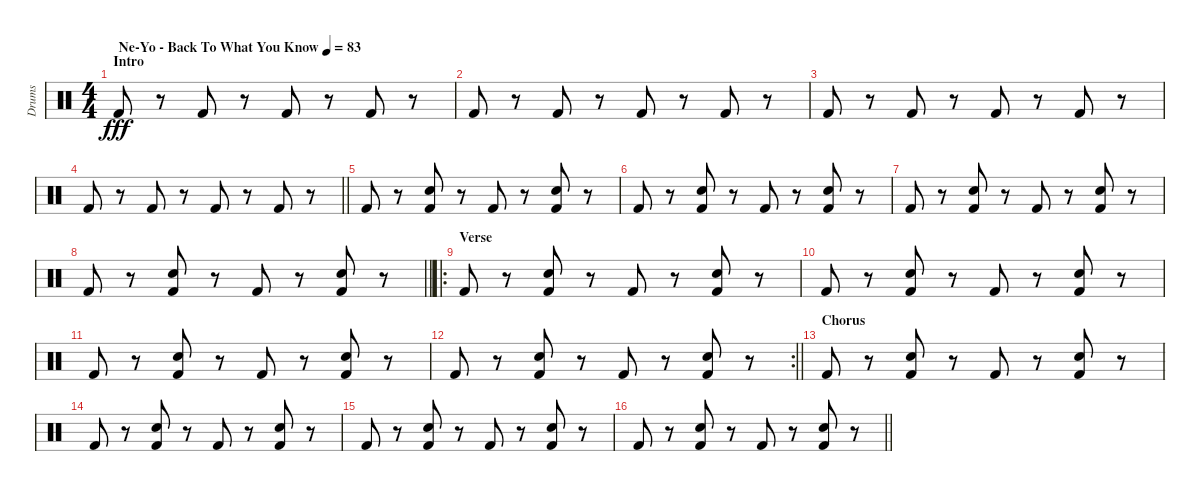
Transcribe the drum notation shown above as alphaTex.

\track ("Drums" "Drums") {instrument percussion}
\staff {score}
\articulation defaults
\ts (4 4)
\section ("" "Intro")
\tempo (83 "Ne-Yo - Back To What You Know")
\clef neutral
\ks c "Kick (hit) 2".8{dy fff}
r.8 "Kick (hit) 2".8 r.8 "Kick (hit) 2".8 r.8 "Kick (hit) 2".8 r.8 |
"Kick (hit) 2".8 r.8 "Kick (hit) 2".8 r.8 "Kick (hit) 2".8 r.8 "Kick (hit) 2".8 r.8 |
"Kick (hit) 2".8 r.8 "Kick (hit) 2".8 r.8 "Kick (hit) 2".8 r.8 "Kick (hit) 2".8 r.8 |
\barLineRight lightlight "Kick (hit) 2".8
r.8 "Kick (hit) 2".8 r.8 "Kick (hit) 2".8 r.8 "Kick (hit) 2".8 r.8 |
"Kick (hit) 2".8 r.8 ("Hand Clap (hit)" "Kick (hit) 2").8 r.8 "Kick (hit) 2".8 r.8 ("Hand Clap (hit)" "Kick (hit) 2").8 r.8 |
"Kick (hit) 2".8 r.8 ("Hand Clap (hit)" "Kick (hit) 2").8 r.8 "Kick (hit) 2".8 r.8 ("Hand Clap (hit)" "Kick (hit) 2").8 r.8 |
"Kick (hit) 2".8 r.8 ("Hand Clap (hit)" "Kick (hit) 2").8 r.8 "Kick (hit) 2".8 r.8 ("Hand Clap (hit)" "Kick (hit) 2").8 r.8 |
\barLineRight lightlight "Kick (hit) 2".8
r.8 ("Hand Clap (hit)" "Kick (hit) 2").8 r.8 "Kick (hit) 2".8 r.8 ("Hand Clap (hit)" "Kick (hit) 2").8 r.8 |
\ro
\section ("" "Verse")
"Kick (hit) 2".8 r.8 ("Hand Clap (hit)" "Kick (hit) 2").8 r.8 "Kick (hit) 2".8 r.8 ("Hand Clap (hit)" "Kick (hit) 2").8 r.8 |
"Kick (hit) 2".8 r.8 ("Hand Clap (hit)" "Kick (hit) 2").8 r.8 "Kick (hit) 2".8 r.8 ("Hand Clap (hit)" "Kick (hit) 2").8 r.8 |
"Kick (hit) 2".8 r.8 ("Hand Clap (hit)" "Kick (hit) 2").8 r.8 "Kick (hit) 2".8 r.8 ("Hand Clap (hit)" "Kick (hit) 2").8 r.8 |
\rc 2
\barLineRight lightlight "Kick (hit) 2".8
r.8 ("Hand Clap (hit)" "Kick (hit) 2").8 r.8 "Kick (hit) 2".8 r.8 ("Hand Clap (hit)" "Kick (hit) 2").8 r.8 |
\section ("" "Chorus")
"Kick (hit) 2".8 r.8 ("Hand Clap (hit)" "Kick (hit) 2").8 r.8 "Kick (hit) 2".8 r.8 ("Hand Clap (hit)" "Kick (hit) 2").8 r.8 |
"Kick (hit) 2".8 r.8 ("Hand Clap (hit)" "Kick (hit) 2").8 r.8 "Kick (hit) 2".8 r.8 ("Hand Clap (hit)" "Kick (hit) 2").8 r.8 |
"Kick (hit) 2".8 r.8 ("Hand Clap (hit)" "Kick (hit) 2").8 r.8 "Kick (hit) 2".8 r.8 ("Hand Clap (hit)" "Kick (hit) 2").8 r.8 |
\barLineRight lightlight "Kick (hit) 2".8
r.8 ("Hand Clap (hit)" "Kick (hit) 2").8 r.8 "Kick (hit) 2".8 r.8 ("Hand Clap (hit)" "Kick (hit) 2").8 r.8
